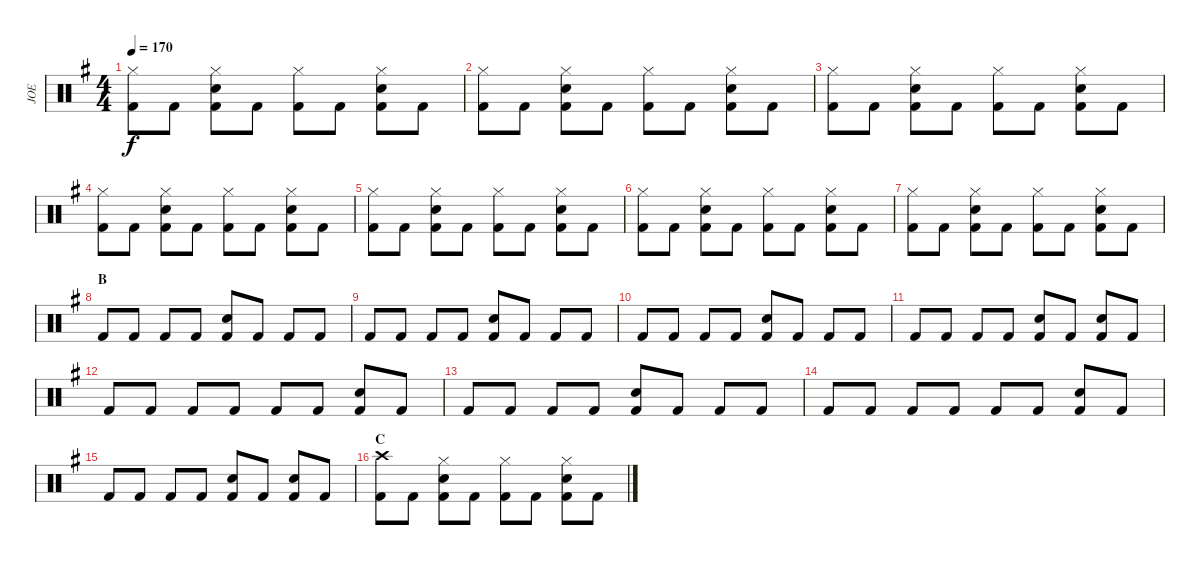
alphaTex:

\track ("JOE" "JOE") {instrument percussion}
\staff {score}
\articulation defaults
\ts (4 4)
\tempo 170
\clef neutral
\ks eminor
("Hi-Hat (closed)" "Kick (hit) 2").8{dy f} "Kick (hit) 2".8 ("Hi-Hat (closed)" "Kick (hit) 2" "Snare (hit) 2").8 "Kick (hit) 2".8 ("Hi-Hat (closed)" "Kick (hit) 2").8 "Kick (hit) 2".8 ("Hi-Hat (closed)" "Kick (hit) 2" "Snare (hit) 2").8 "Kick (hit) 2".8 |
("Hi-Hat (closed)" "Kick (hit) 2").8 "Kick (hit) 2".8 ("Hi-Hat (closed)" "Kick (hit) 2" "Snare (hit) 2").8 "Kick (hit) 2".8 ("Hi-Hat (closed)" "Kick (hit) 2").8 "Kick (hit) 2".8 ("Hi-Hat (closed)" "Kick (hit) 2" "Snare (hit) 2").8 "Kick (hit) 2".8 |
("Hi-Hat (closed)" "Kick (hit) 2").8 "Kick (hit) 2".8 ("Hi-Hat (closed)" "Kick (hit) 2" "Snare (hit) 2").8 "Kick (hit) 2".8 ("Hi-Hat (closed)" "Kick (hit) 2").8 "Kick (hit) 2".8 ("Hi-Hat (closed)" "Kick (hit) 2" "Snare (hit) 2").8 "Kick (hit) 2".8 |
("Hi-Hat (closed)" "Kick (hit) 2").8 "Kick (hit) 2".8 ("Hi-Hat (closed)" "Kick (hit) 2" "Snare (hit) 2").8 "Kick (hit) 2".8 ("Hi-Hat (closed)" "Kick (hit) 2").8 "Kick (hit) 2".8 ("Hi-Hat (closed)" "Kick (hit) 2" "Snare (hit) 2").8 "Kick (hit) 2".8 |
("Hi-Hat (closed)" "Kick (hit) 2").8 "Kick (hit) 2".8 ("Hi-Hat (closed)" "Kick (hit) 2" "Snare (hit) 2").8 "Kick (hit) 2".8 ("Hi-Hat (closed)" "Kick (hit) 2").8 "Kick (hit) 2".8 ("Hi-Hat (closed)" "Kick (hit) 2" "Snare (hit) 2").8 "Kick (hit) 2".8 |
("Hi-Hat (closed)" "Kick (hit) 2").8 "Kick (hit) 2".8 ("Hi-Hat (closed)" "Kick (hit) 2" "Snare (hit) 2").8 "Kick (hit) 2".8 ("Hi-Hat (closed)" "Kick (hit) 2").8 "Kick (hit) 2".8 ("Hi-Hat (closed)" "Kick (hit) 2" "Snare (hit) 2").8 "Kick (hit) 2".8 |
("Hi-Hat (closed)" "Kick (hit) 2").8 "Kick (hit) 2".8 ("Hi-Hat (closed)" "Kick (hit) 2" "Snare (hit) 2").8 "Kick (hit) 2".8 ("Hi-Hat (closed)" "Kick (hit) 2").8 "Kick (hit) 2".8 ("Hi-Hat (closed)" "Kick (hit) 2" "Snare (hit) 2").8 "Kick (hit) 2".8 |
\section ("" "B")
"Kick (hit) 2".8 "Kick (hit) 2".8 "Kick (hit) 2".8 "Kick (hit) 2".8 ("Snare (hit) 2" "Kick (hit) 2").8 "Kick (hit) 2".8 "Kick (hit) 2".8 "Kick (hit) 2".8 |
"Kick (hit) 2".8 "Kick (hit) 2".8 "Kick (hit) 2".8 "Kick (hit) 2".8 ("Snare (hit) 2" "Kick (hit) 2").8 "Kick (hit) 2".8 "Kick (hit) 2".8 "Kick (hit) 2".8 |
"Kick (hit) 2".8 "Kick (hit) 2".8 "Kick (hit) 2".8 "Kick (hit) 2".8 ("Snare (hit) 2" "Kick (hit) 2").8 "Kick (hit) 2".8 "Kick (hit) 2".8 "Kick (hit) 2".8 |
"Kick (hit) 2".8 "Kick (hit) 2".8 "Kick (hit) 2".8 "Kick (hit) 2".8 ("Snare (hit) 2" "Kick (hit) 2").8 "Kick (hit) 2".8 ("Snare (hit) 2" "Kick (hit) 2").8 "Kick (hit) 2".8 |
"Kick (hit) 2".8 "Kick (hit) 2".8 "Kick (hit) 2".8 "Kick (hit) 2".8 "Kick (hit) 2".8 "Kick (hit) 2".8 ("Snare (hit) 2" "Kick (hit) 2").8 "Kick (hit) 2".8 |
"Kick (hit) 2".8 "Kick (hit) 2".8 "Kick (hit) 2".8 "Kick (hit) 2".8 ("Snare (hit) 2" "Kick (hit) 2").8 "Kick (hit) 2".8 "Kick (hit) 2".8 "Kick (hit) 2".8 |
"Kick (hit) 2".8 "Kick (hit) 2".8 "Kick (hit) 2".8 "Kick (hit) 2".8 "Kick (hit) 2".8 "Kick (hit) 2".8 ("Snare (hit) 2" "Kick (hit) 2").8 "Kick (hit) 2".8 |
"Kick (hit) 2".8 "Kick (hit) 2".8 "Kick (hit) 2".8 "Kick (hit) 2".8 ("Snare (hit) 2" "Kick (hit) 2").8 "Kick (hit) 2".8 ("Snare (hit) 2" "Kick (hit) 2").8 "Kick (hit) 2".8 |
\section ("" "C")
("Crash high (hit)" "Kick (hit) 2").8 "Kick (hit) 2".8 ("Hi-Hat (closed)" "Snare (hit) 2" "Kick (hit) 2").8 "Kick (hit) 2".8 ("Hi-Hat (closed)" "Kick (hit) 2").8 "Kick (hit) 2".8 ("Hi-Hat (closed)" "Snare (hit) 2" "Kick (hit) 2").8 "Kick (hit) 2".8
